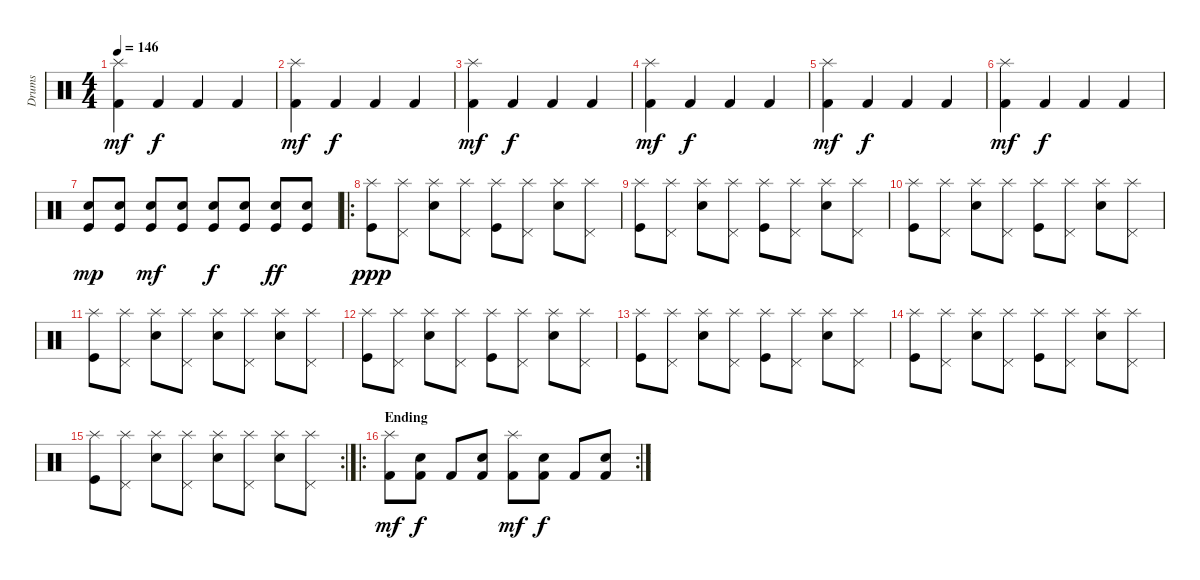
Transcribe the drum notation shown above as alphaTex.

\track ("Drums" "Drums") {instrument percussion}
\staff {score}
\articulation defaults
\ts (4 4)
\tempo 146
\clef neutral
\ks c
("Kick (hit) 2" "Splash (hit)").4{dy mf} "Kick (hit) 2".4{dy f} "Kick (hit) 2".4 "Kick (hit) 2".4 |
("Kick (hit) 2" "Splash (hit)").4{dy mf} "Kick (hit) 2".4{dy f} "Kick (hit) 2".4 "Kick (hit) 2".4 |
("Kick (hit) 2" "Splash (hit)").4{dy mf} "Kick (hit) 2".4{dy f} "Kick (hit) 2".4 "Kick (hit) 2".4 |
("Kick (hit) 2" "Splash (hit)").4{dy mf} "Kick (hit) 2".4{dy f} "Kick (hit) 2".4 "Kick (hit) 2".4 |
("Kick (hit) 2" "Splash (hit)").4{dy mf} "Kick (hit) 2".4{dy f} "Kick (hit) 2".4 "Kick (hit) 2".4 |
("Kick (hit) 2" "Splash (hit)").4{dy mf} "Kick (hit) 2".4{dy f} "Kick (hit) 2".4 "Kick (hit) 2".4 |
("Electric Snare (hit)" "Kick (hit)").8{dy mp} ("Electric Snare (hit)" "Kick (hit)").8 ("Electric Snare (hit)" "Kick (hit)").8{dy mf} ("Electric Snare (hit)" "Kick (hit)").8 ("Electric Snare (hit)" "Kick (hit)").8{dy f} ("Electric Snare (hit)" "Kick (hit)").8 ("Electric Snare (hit)" "Kick (hit)").8{dy ff} ("Electric Snare (hit)" "Kick (hit)").8 |
\ro
("Kick (hit)" "Splash (hit)").8{dy ppp} ("Pedal Hi-Hat (hit)" "Splash (hit)").8 ("Electric Snare (hit)" "Splash (hit)").8 ("Pedal Hi-Hat (hit)" "Splash (hit)").8 ("Kick (hit)" "Splash (hit)").8 ("Pedal Hi-Hat (hit)" "Splash (hit)").8 ("Electric Snare (hit)" "Splash (hit)").8 ("Pedal Hi-Hat (hit)" "Splash (hit)").8 |
("Kick (hit)" "Splash (hit)").8 ("Pedal Hi-Hat (hit)" "Splash (hit)").8 ("Electric Snare (hit)" "Splash (hit)").8 ("Pedal Hi-Hat (hit)" "Splash (hit)").8 ("Kick (hit)" "Splash (hit)").8 ("Pedal Hi-Hat (hit)" "Splash (hit)").8 ("Electric Snare (hit)" "Splash (hit)").8 ("Pedal Hi-Hat (hit)" "Splash (hit)").8 |
("Kick (hit)" "Splash (hit)").8 ("Pedal Hi-Hat (hit)" "Splash (hit)").8 ("Electric Snare (hit)" "Splash (hit)").8 ("Pedal Hi-Hat (hit)" "Splash (hit)").8 ("Kick (hit)" "Splash (hit)").8 ("Pedal Hi-Hat (hit)" "Splash (hit)").8 ("Electric Snare (hit)" "Splash (hit)").8 ("Pedal Hi-Hat (hit)" "Splash (hit)").8 |
("Kick (hit)" "Splash (hit)").8 ("Pedal Hi-Hat (hit)" "Splash (hit)").8 ("Electric Snare (hit)" "Splash (hit)").8 ("Pedal Hi-Hat (hit)" "Splash (hit)").8 ("Electric Snare (hit)" "Splash (hit)").8 ("Pedal Hi-Hat (hit)" "Splash (hit)").8 ("Electric Snare (hit)" "Splash (hit)").8 ("Pedal Hi-Hat (hit)" "Splash (hit)").8 |
("Kick (hit)" "Splash (hit)").8 ("Pedal Hi-Hat (hit)" "Splash (hit)").8 ("Electric Snare (hit)" "Splash (hit)").8 ("Pedal Hi-Hat (hit)" "Splash (hit)").8 ("Kick (hit)" "Splash (hit)").8 ("Pedal Hi-Hat (hit)" "Splash (hit)").8 ("Electric Snare (hit)" "Splash (hit)").8 ("Pedal Hi-Hat (hit)" "Splash (hit)").8 |
("Kick (hit)" "Splash (hit)").8 ("Pedal Hi-Hat (hit)" "Splash (hit)").8 ("Electric Snare (hit)" "Splash (hit)").8 ("Pedal Hi-Hat (hit)" "Splash (hit)").8 ("Kick (hit)" "Splash (hit)").8 ("Pedal Hi-Hat (hit)" "Splash (hit)").8 ("Electric Snare (hit)" "Splash (hit)").8 ("Pedal Hi-Hat (hit)" "Splash (hit)").8 |
("Kick (hit)" "Splash (hit)").8 ("Pedal Hi-Hat (hit)" "Splash (hit)").8 ("Electric Snare (hit)" "Splash (hit)").8 ("Pedal Hi-Hat (hit)" "Splash (hit)").8 ("Kick (hit)" "Splash (hit)").8 ("Pedal Hi-Hat (hit)" "Splash (hit)").8 ("Electric Snare (hit)" "Splash (hit)").8 ("Pedal Hi-Hat (hit)" "Splash (hit)").8 |
\rc 2
("Kick (hit)" "Splash (hit)").8 ("Pedal Hi-Hat (hit)" "Splash (hit)").8 ("Electric Snare (hit)" "Splash (hit)").8 ("Pedal Hi-Hat (hit)" "Splash (hit)").8 ("Electric Snare (hit)" "Splash (hit)").8 ("Pedal Hi-Hat (hit)" "Splash (hit)").8 ("Electric Snare (hit)" "Splash (hit)").8 ("Pedal Hi-Hat (hit)" "Splash (hit)").8 |
\ro
\rc 2
\section ("" "Ending")
("Splash (hit)" "Kick (hit) 2").8{dy mf} ("Electric Snare (hit)" "Kick (hit) 2").8{dy f} "Kick (hit) 2".8 ("Electric Snare (hit)" "Kick (hit) 2").8 ("Splash (hit)" "Kick (hit) 2").8{dy mf} ("Electric Snare (hit)" "Kick (hit) 2").8{dy f} "Kick (hit) 2".8 ("Electric Snare (hit)" "Kick (hit) 2").8
